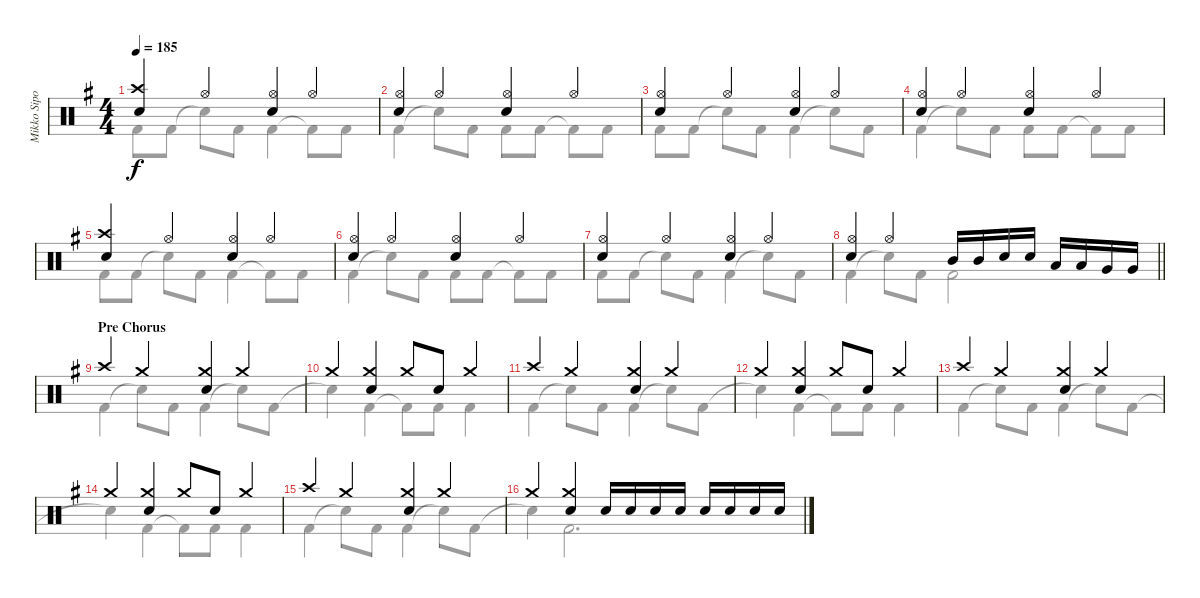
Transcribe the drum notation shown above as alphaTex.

\track ("Mikko Sipola (drums)" "Mikko Sipo") {instrument percussion}
\staff {score}
\articulation defaults
\voice
\ts (4 4)
\tempo 185
\clef neutral
\ks eminor
("Crash high (hit)" "Electric Snare (hit)").4{dy f} "Hi-Hat (open)".4 ("Hi-Hat (open)" "Electric Snare (hit)").4 "Hi-Hat (open)".4 |
("Hi-Hat (open)" "Electric Snare (hit)").4 "Hi-Hat (open)".4 ("Hi-Hat (open)" "Electric Snare (hit)").4 "Hi-Hat (open)".4 |
("Hi-Hat (open)" "Electric Snare (hit)").4 "Hi-Hat (open)".4 ("Hi-Hat (open)" "Electric Snare (hit)").4 "Hi-Hat (open)".4 |
("Hi-Hat (open)" "Electric Snare (hit)").4 "Hi-Hat (open)".4 ("Hi-Hat (open)" "Electric Snare (hit)").4 "Hi-Hat (open)".4 |
("Crash high (hit)" "Electric Snare (hit)").4 "Hi-Hat (open)".4 ("Hi-Hat (open)" "Electric Snare (hit)").4 "Hi-Hat (open)".4 |
("Hi-Hat (open)" "Electric Snare (hit)").4 "Hi-Hat (open)".4 ("Hi-Hat (open)" "Electric Snare (hit)").4 "Hi-Hat (open)".4 |
("Hi-Hat (open)" "Electric Snare (hit)").4 "Hi-Hat (open)".4 ("Hi-Hat (open)" "Electric Snare (hit)").4 "Hi-Hat (open)".4 |
\barLineRight lightlight
("Hi-Hat (open)" "Electric Snare (hit)").4 "Hi-Hat (open)".4 "Mid Tom (hit)".16 "Mid Tom (hit)".16 "Snare (hit) 2".16 "Snare (hit) 2".16 "Low Tom (hit)".16 "Low Tom (hit)".16 "Very Low Tom (hit)".16 "Very Low Tom (hit)".16 |
\section ("" "Pre Chorus")
"Crash high (hit)".4 "Crash medium (hit)".4 ("Crash medium (hit)" "Electric Snare (hit)").4 "Crash medium (hit)".4 |
"Crash medium (hit)".4 ("Crash medium (hit)" "Electric Snare (hit)").4 "Crash medium (hit)".8 "Electric Snare (hit)".8 "Crash medium (hit)".4 |
"Crash high (hit)".4 "Crash medium (hit)".4 ("Crash medium (hit)" "Electric Snare (hit)").4 "Crash medium (hit)".4 |
"Crash medium (hit)".4 ("Crash medium (hit)" "Electric Snare (hit)").4 "Crash medium (hit)".8 "Electric Snare (hit)".8 "Crash medium (hit)".4 |
"Crash high (hit)".4 "Crash medium (hit)".4 ("Crash medium (hit)" "Electric Snare (hit)").4 "Crash medium (hit)".4 |
"Crash medium (hit)".4 ("Crash medium (hit)" "Electric Snare (hit)").4 "Crash medium (hit)".8 "Electric Snare (hit)".8 "Crash medium (hit)".4 |
"Crash high (hit)".4 "Crash medium (hit)".4 ("Crash medium (hit)" "Electric Snare (hit)").4 "Crash medium (hit)".4 |
"Crash medium (hit)".4 ("Crash medium (hit)" "Electric Snare (hit)").4 "Electric Snare (hit)".16 "Electric Snare (hit)".16 "Electric Snare (hit)".16 "Electric Snare (hit)".16 "Electric Snare (hit)".16 "Electric Snare (hit)".16 "Electric Snare (hit)".16 "Electric Snare (hit)".16
\voice
\clef neutral
\ottava regular
\simile none
\ks eminor "Kick (hit) 2".8{dy f} "Kick (hit) 2".8 "Snare (hit)"{t}.8 "Kick (hit) 2".8 "Kick (hit) 2".4 "Kick (hit) 2"{t}.8 "Kick (hit) 2".8
|
"Kick (hit) 2".4 "Snare (hit)"{t}.8 "Kick (hit) 2".8 "Kick (hit) 2".8 "Kick (hit) 2".8 "Kick (hit) 2"{t}.8 "Kick (hit) 2".8 |
"Kick (hit) 2".8 "Kick (hit) 2".8 "Snare (hit)"{t}.8 "Kick (hit) 2".8 "Kick (hit) 2".4 "Snare (hit)"{t}.8 "Kick (hit) 2".8 |
"Kick (hit) 2".4 "Snare (hit)"{t}.8 "Kick (hit) 2".8 "Kick (hit) 2".8 "Kick (hit) 2".8 "Kick (hit) 2"{t}.8 "Kick (hit) 2".8 |
"Kick (hit) 2".8 "Kick (hit) 2".8 "Snare (hit)"{t}.8 "Kick (hit) 2".8 "Kick (hit) 2".4 "Kick (hit) 2"{t}.8 "Kick (hit) 2".8 |
"Kick (hit) 2".4 "Snare (hit)"{t}.8 "Kick (hit) 2".8 "Kick (hit) 2".8 "Kick (hit) 2".8 "Kick (hit) 2"{t}.8 "Kick (hit) 2".8 |
"Kick (hit) 2".8 "Kick (hit) 2".8 "Snare (hit)"{t}.8 "Kick (hit) 2".8 "Kick (hit) 2".4 "Snare (hit)"{t}.8 "Kick (hit) 2".8 |
\barLineRight lightlight "Kick (hit) 2".4 "Snare (hit)"{t}.8 "Kick (hit) 2".8 "Kick (hit) 2".2
|
"Kick (hit) 2".4 "Snare (hit)"{t}.8 "Kick (hit) 2".8 "Kick (hit) 2".4 "Snare (hit)"{t}.8 "Kick (hit) 2".8 |
"Snare (hit)"{t}.4 "Kick (hit) 2".4 "Kick (hit) 2"{t}.8 "Kick (hit) 2".8 "Kick (hit) 2".4 |
"Kick (hit) 2".4 "Snare (hit)"{t}.8 "Kick (hit) 2".8 "Kick (hit) 2".4 "Snare (hit)"{t}.8 "Kick (hit) 2".8 |
"Snare (hit)"{t}.4 "Kick (hit) 2".4 "Kick (hit) 2"{t}.8 "Kick (hit) 2".8 "Kick (hit) 2".4 |
"Kick (hit) 2".4 "Snare (hit)"{t}.8 "Kick (hit) 2".8 "Kick (hit) 2".4 "Snare (hit)"{t}.8 "Kick (hit) 2".8 |
"Snare (hit)"{t}.4 "Kick (hit) 2".4 "Kick (hit) 2"{t}.8 "Kick (hit) 2".8 "Kick (hit) 2".4 |
"Kick (hit) 2".4 "Snare (hit)"{t}.8 "Kick (hit) 2".8 "Kick (hit) 2".4 "Snare (hit)"{t}.8 "Kick (hit) 2".8 |
"Snare (hit)"{t}.4 "Kick (hit) 2".2{d}
